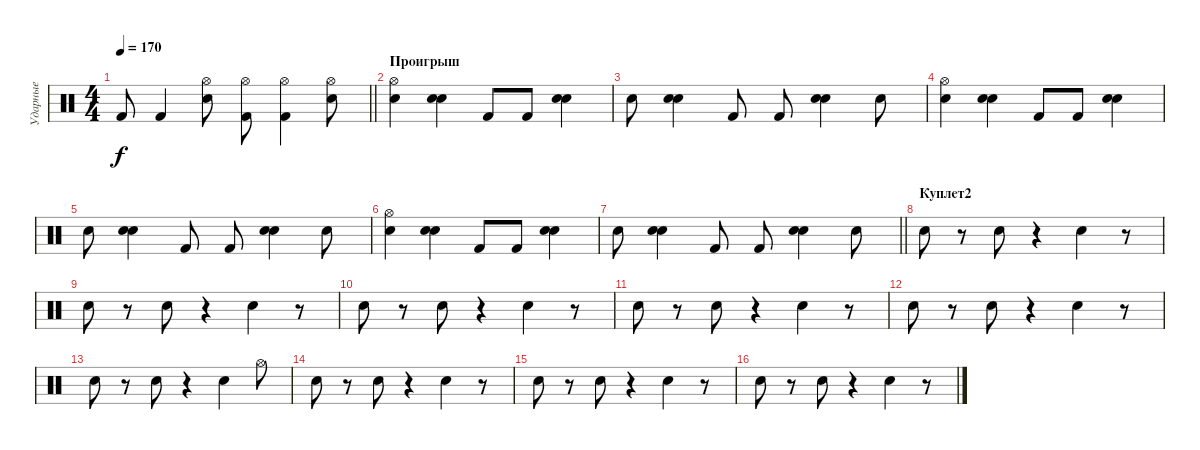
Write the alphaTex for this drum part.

\track ("Ударные" "Ударные") {instrument percussion}
\staff {score}
\articulation defaults
\ts (4 4)
\tempo 170
\clef neutral
\barLineRight lightlight
\ks c "Kick (hit) 2".8{dy f} "Kick (hit) 2".4
("Hi-Hat (open)" "Electric Snare (hit)").8 ("Hi-Hat (open)" "Kick (hit) 2").8 ("Hi-Hat (open)" "Kick (hit) 2").4 ("Hi-Hat (open)" "Electric Snare (hit)").8 |
\section ("" "Проигрыш")
("Hi-Hat (open)" "Electric Snare (hit)").4 ("Electric Snare (hit)" "Snare (hit) 2").4 "Kick (hit) 2".8 "Kick (hit) 2".8 ("Electric Snare (hit)" "Snare (hit) 2").4 |
"Electric Snare (hit)".8 ("Electric Snare (hit)" "Snare (hit) 2").4 "Kick (hit) 2".8 "Kick (hit) 2".8 ("Electric Snare (hit)" "Snare (hit) 2").4 "Electric Snare (hit)".8 |
("Hi-Hat (open)" "Electric Snare (hit)").4 ("Electric Snare (hit)" "Snare (hit) 2").4 "Kick (hit) 2".8 "Kick (hit) 2".8 ("Electric Snare (hit)" "Snare (hit) 2").4 |
"Electric Snare (hit)".8 ("Electric Snare (hit)" "Snare (hit) 2").4 "Kick (hit) 2".8 "Kick (hit) 2".8 ("Electric Snare (hit)" "Snare (hit) 2").4 "Electric Snare (hit)".8 |
("Hi-Hat (open)" "Electric Snare (hit)").4 ("Electric Snare (hit)" "Snare (hit) 2").4 "Kick (hit) 2".8 "Kick (hit) 2".8 ("Electric Snare (hit)" "Snare (hit) 2").4 |
\barLineRight lightlight "Electric Snare (hit)".8
("Electric Snare (hit)" "Snare (hit) 2").4 "Kick (hit) 2".8 "Kick (hit) 2".8 ("Electric Snare (hit)" "Snare (hit) 2").4 "Electric Snare (hit)".8 |
\section ("" "Куплет2")
"Electric Snare (hit)".8 r.8 "Electric Snare (hit)".8 r.4 "Electric Snare (hit)".4 r.8 |
"Electric Snare (hit)".8 r.8 "Electric Snare (hit)".8 r.4 "Electric Snare (hit)".4 r.8 |
"Electric Snare (hit)".8 r.8 "Electric Snare (hit)".8 r.4 "Electric Snare (hit)".4 r.8 |
"Electric Snare (hit)".8 r.8 "Electric Snare (hit)".8 r.4 "Electric Snare (hit)".4 r.8 |
"Electric Snare (hit)".8 r.8 "Electric Snare (hit)".8 r.4 "Electric Snare (hit)".4 r.8 |
"Electric Snare (hit)".8 r.8 "Electric Snare (hit)".8 r.4 "Electric Snare (hit)".4 "Hi-Hat (open)".8 |
"Electric Snare (hit)".8 r.8 "Electric Snare (hit)".8 r.4 "Electric Snare (hit)".4 r.8 |
"Electric Snare (hit)".8 r.8 "Electric Snare (hit)".8 r.4 "Electric Snare (hit)".4 r.8 |
"Electric Snare (hit)".8 r.8 "Electric Snare (hit)".8 r.4 "Electric Snare (hit)".4 r.8
